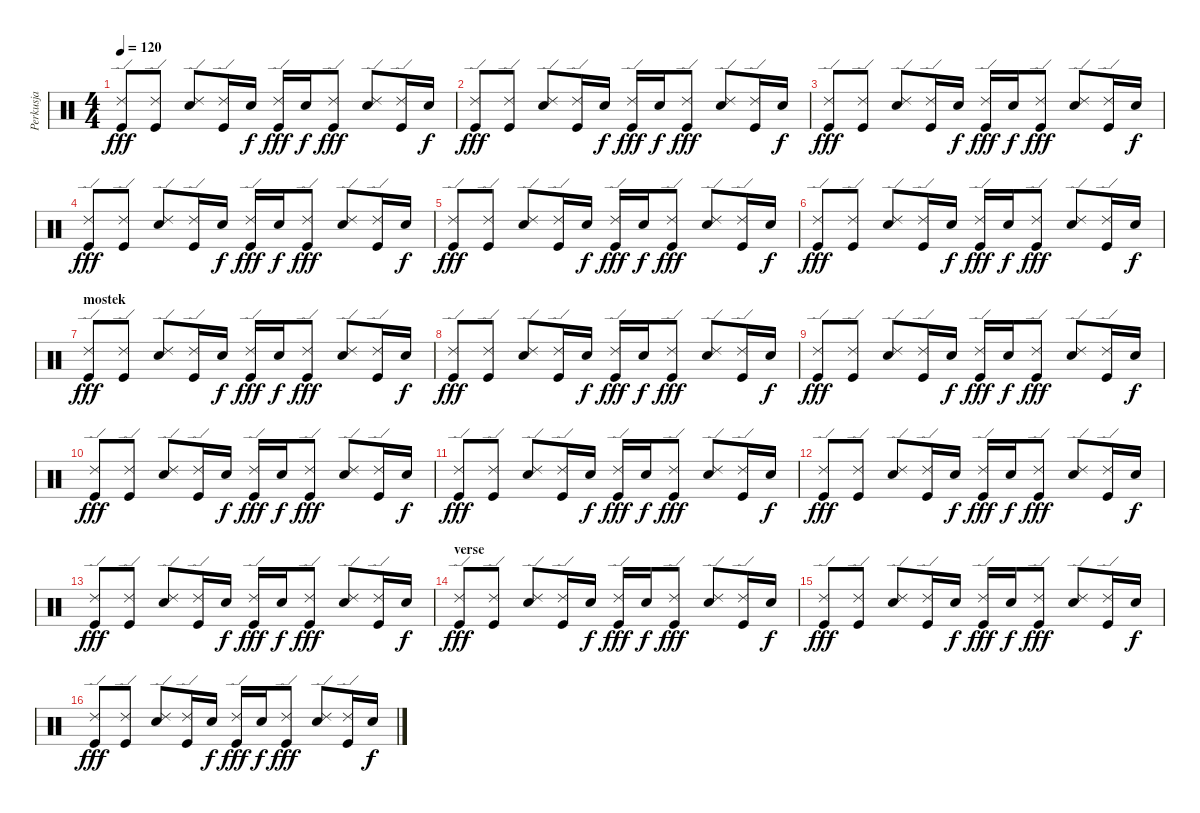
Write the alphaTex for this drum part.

\track ("Perkusja" "Perkusja") {instrument percussion}
\staff {score}
\articulation defaults
\ts (4 4)
\tempo 120
\clef neutral
\ks c
("Ride (edge) 2" "Kick (hit)").8{dy fff} ("Ride (edge) 2" "Kick (hit)").8 ("Ride (edge) 2" "Electric Snare (hit)").8 ("Ride (edge) 2" "Kick (hit)").16 "Electric Snare (hit)".16{dy f} ("Ride (edge) 2" "Kick (hit)").16{dy fff} "Electric Snare (hit)".16{dy f} ("Ride (edge) 2" "Kick (hit)").8{dy fff} ("Ride (edge) 2" "Electric Snare (hit)").8 ("Ride (edge) 2" "Kick (hit)").16 "Electric Snare (hit)".16{dy f} |
("Ride (edge) 2" "Kick (hit)").8{dy fff} ("Ride (edge) 2" "Kick (hit)").8 ("Ride (edge) 2" "Electric Snare (hit)").8 ("Ride (edge) 2" "Kick (hit)").16 "Electric Snare (hit)".16{dy f} ("Ride (edge) 2" "Kick (hit)").16{dy fff} "Electric Snare (hit)".16{dy f} ("Ride (edge) 2" "Kick (hit)").8{dy fff} ("Ride (edge) 2" "Electric Snare (hit)").8 ("Ride (edge) 2" "Kick (hit)").16 "Electric Snare (hit)".16{dy f} |
("Ride (edge) 2" "Kick (hit)").8{dy fff} ("Ride (edge) 2" "Kick (hit)").8 ("Ride (edge) 2" "Electric Snare (hit)").8 ("Ride (edge) 2" "Kick (hit)").16 "Electric Snare (hit)".16{dy f} ("Ride (edge) 2" "Kick (hit)").16{dy fff} "Electric Snare (hit)".16{dy f} ("Ride (edge) 2" "Kick (hit)").8{dy fff} ("Ride (edge) 2" "Electric Snare (hit)").8 ("Ride (edge) 2" "Kick (hit)").16 "Electric Snare (hit)".16{dy f} |
("Ride (edge) 2" "Kick (hit)").8{dy fff} ("Ride (edge) 2" "Kick (hit)").8 ("Ride (edge) 2" "Electric Snare (hit)").8 ("Ride (edge) 2" "Kick (hit)").16 "Electric Snare (hit)".16{dy f} ("Ride (edge) 2" "Kick (hit)").16{dy fff} "Electric Snare (hit)".16{dy f} ("Ride (edge) 2" "Kick (hit)").8{dy fff} ("Ride (edge) 2" "Electric Snare (hit)").8 ("Ride (edge) 2" "Kick (hit)").16 "Electric Snare (hit)".16{dy f} |
("Ride (edge) 2" "Kick (hit)").8{dy fff} ("Ride (edge) 2" "Kick (hit)").8 ("Ride (edge) 2" "Electric Snare (hit)").8 ("Ride (edge) 2" "Kick (hit)").16 "Electric Snare (hit)".16{dy f} ("Ride (edge) 2" "Kick (hit)").16{dy fff} "Electric Snare (hit)".16{dy f} ("Ride (edge) 2" "Kick (hit)").8{dy fff} ("Ride (edge) 2" "Electric Snare (hit)").8 ("Ride (edge) 2" "Kick (hit)").16 "Electric Snare (hit)".16{dy f} |
("Ride (edge) 2" "Kick (hit)").8{dy fff} ("Ride (edge) 2" "Kick (hit)").8 ("Ride (edge) 2" "Electric Snare (hit)").8 ("Ride (edge) 2" "Kick (hit)").16 "Electric Snare (hit)".16{dy f} ("Ride (edge) 2" "Kick (hit)").16{dy fff} "Electric Snare (hit)".16{dy f} ("Ride (edge) 2" "Kick (hit)").8{dy fff} ("Ride (edge) 2" "Electric Snare (hit)").8 ("Ride (edge) 2" "Kick (hit)").16 "Electric Snare (hit)".16{dy f} |
\section ("" "mostek")
("Ride (edge) 2" "Kick (hit)").8{dy fff} ("Ride (edge) 2" "Kick (hit)").8 ("Ride (edge) 2" "Electric Snare (hit)").8 ("Ride (edge) 2" "Kick (hit)").16 "Electric Snare (hit)".16{dy f} ("Ride (edge) 2" "Kick (hit)").16{dy fff} "Electric Snare (hit)".16{dy f} ("Ride (edge) 2" "Kick (hit)").8{dy fff} ("Ride (edge) 2" "Electric Snare (hit)").8 ("Ride (edge) 2" "Kick (hit)").16 "Electric Snare (hit)".16{dy f} |
("Ride (edge) 2" "Kick (hit)").8{dy fff} ("Ride (edge) 2" "Kick (hit)").8 ("Ride (edge) 2" "Electric Snare (hit)").8 ("Ride (edge) 2" "Kick (hit)").16 "Electric Snare (hit)".16{dy f} ("Ride (edge) 2" "Kick (hit)").16{dy fff} "Electric Snare (hit)".16{dy f} ("Ride (edge) 2" "Kick (hit)").8{dy fff} ("Ride (edge) 2" "Electric Snare (hit)").8 ("Ride (edge) 2" "Kick (hit)").16 "Electric Snare (hit)".16{dy f} |
("Ride (edge) 2" "Kick (hit)").8{dy fff} ("Ride (edge) 2" "Kick (hit)").8 ("Ride (edge) 2" "Electric Snare (hit)").8 ("Ride (edge) 2" "Kick (hit)").16 "Electric Snare (hit)".16{dy f} ("Ride (edge) 2" "Kick (hit)").16{dy fff} "Electric Snare (hit)".16{dy f} ("Ride (edge) 2" "Kick (hit)").8{dy fff} ("Ride (edge) 2" "Electric Snare (hit)").8 ("Ride (edge) 2" "Kick (hit)").16 "Electric Snare (hit)".16{dy f} |
("Ride (edge) 2" "Kick (hit)").8{dy fff} ("Ride (edge) 2" "Kick (hit)").8 ("Ride (edge) 2" "Electric Snare (hit)").8 ("Ride (edge) 2" "Kick (hit)").16 "Electric Snare (hit)".16{dy f} ("Ride (edge) 2" "Kick (hit)").16{dy fff} "Electric Snare (hit)".16{dy f} ("Ride (edge) 2" "Kick (hit)").8{dy fff} ("Ride (edge) 2" "Electric Snare (hit)").8 ("Ride (edge) 2" "Kick (hit)").16 "Electric Snare (hit)".16{dy f} |
("Ride (edge) 2" "Kick (hit)").8{dy fff} ("Ride (edge) 2" "Kick (hit)").8 ("Ride (edge) 2" "Electric Snare (hit)").8 ("Ride (edge) 2" "Kick (hit)").16 "Electric Snare (hit)".16{dy f} ("Ride (edge) 2" "Kick (hit)").16{dy fff} "Electric Snare (hit)".16{dy f} ("Ride (edge) 2" "Kick (hit)").8{dy fff} ("Ride (edge) 2" "Electric Snare (hit)").8 ("Ride (edge) 2" "Kick (hit)").16 "Electric Snare (hit)".16{dy f} |
("Ride (edge) 2" "Kick (hit)").8{dy fff} ("Ride (edge) 2" "Kick (hit)").8 ("Ride (edge) 2" "Electric Snare (hit)").8 ("Ride (edge) 2" "Kick (hit)").16 "Electric Snare (hit)".16{dy f} ("Ride (edge) 2" "Kick (hit)").16{dy fff} "Electric Snare (hit)".16{dy f} ("Ride (edge) 2" "Kick (hit)").8{dy fff} ("Ride (edge) 2" "Electric Snare (hit)").8 ("Ride (edge) 2" "Kick (hit)").16 "Electric Snare (hit)".16{dy f} |
("Ride (edge) 2" "Kick (hit)").8{dy fff} ("Ride (edge) 2" "Kick (hit)").8 ("Ride (edge) 2" "Electric Snare (hit)").8 ("Ride (edge) 2" "Kick (hit)").16 "Electric Snare (hit)".16{dy f} ("Ride (edge) 2" "Kick (hit)").16{dy fff} "Electric Snare (hit)".16{dy f} ("Ride (edge) 2" "Kick (hit)").8{dy fff} ("Ride (edge) 2" "Electric Snare (hit)").8 ("Ride (edge) 2" "Kick (hit)").16 "Electric Snare (hit)".16{dy f} |
\section ("" "verse")
("Ride (edge) 2" "Kick (hit)").8{dy fff} ("Ride (edge) 2" "Kick (hit)").8 ("Ride (edge) 2" "Electric Snare (hit)").8 ("Ride (edge) 2" "Kick (hit)").16 "Electric Snare (hit)".16{dy f} ("Ride (edge) 2" "Kick (hit)").16{dy fff} "Electric Snare (hit)".16{dy f} ("Ride (edge) 2" "Kick (hit)").8{dy fff} ("Ride (edge) 2" "Electric Snare (hit)").8 ("Ride (edge) 2" "Kick (hit)").16 "Electric Snare (hit)".16{dy f} |
("Ride (edge) 2" "Kick (hit)").8{dy fff} ("Ride (edge) 2" "Kick (hit)").8 ("Ride (edge) 2" "Electric Snare (hit)").8 ("Ride (edge) 2" "Kick (hit)").16 "Electric Snare (hit)".16{dy f} ("Ride (edge) 2" "Kick (hit)").16{dy fff} "Electric Snare (hit)".16{dy f} ("Ride (edge) 2" "Kick (hit)").8{dy fff} ("Ride (edge) 2" "Electric Snare (hit)").8 ("Ride (edge) 2" "Kick (hit)").16 "Electric Snare (hit)".16{dy f} |
("Ride (edge) 2" "Kick (hit)").8{dy fff} ("Ride (edge) 2" "Kick (hit)").8 ("Ride (edge) 2" "Electric Snare (hit)").8 ("Ride (edge) 2" "Kick (hit)").16 "Electric Snare (hit)".16{dy f} ("Ride (edge) 2" "Kick (hit)").16{dy fff} "Electric Snare (hit)".16{dy f} ("Ride (edge) 2" "Kick (hit)").8{dy fff} ("Ride (edge) 2" "Electric Snare (hit)").8 ("Ride (edge) 2" "Kick (hit)").16 "Electric Snare (hit)".16{dy f}
